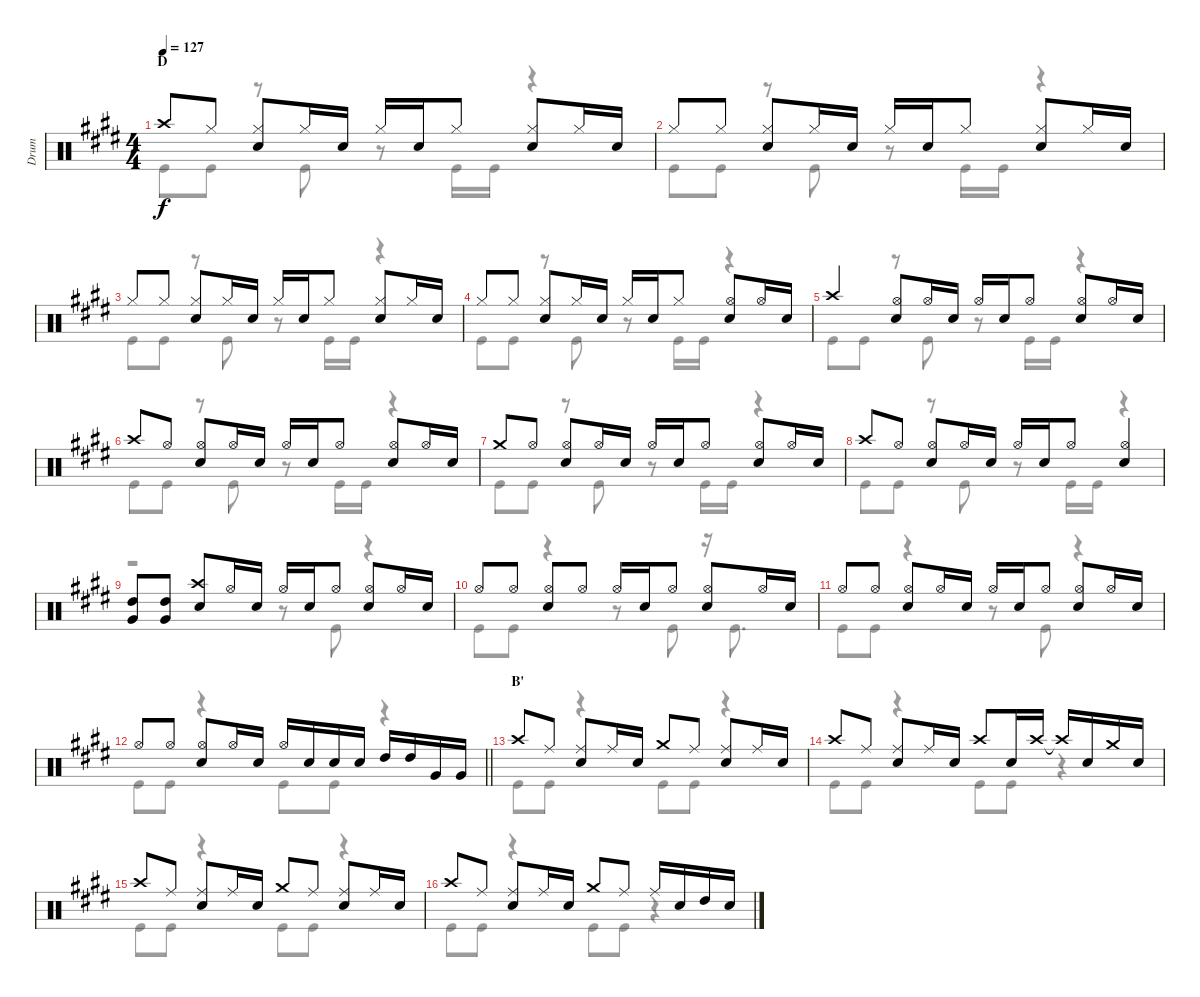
\track ("Drum" "Drum") {instrument percussion}
\staff {score}
\articulation defaults
\voice
\ts (4 4)
\section ("" "D")
\tempo 127
\clef neutral
\ks e "Crash high (hit)".8{dy f} "Hi-Hat (closed)".8
("Hi-Hat (closed)" "Snare (hit) 2").8 "Hi-Hat (closed)".16 "Snare (hit) 2".16 "Hi-Hat (closed)".16 "Snare (hit) 2".16 "Hi-Hat (closed)".8 ("Snare (hit) 2" "Hi-Hat (closed)").8 "Hi-Hat (closed)".16 "Snare (hit) 2".16 |
"Hi-Hat (closed)".8 "Hi-Hat (closed)".8 ("Hi-Hat (closed)" "Snare (hit) 2").8 "Hi-Hat (closed)".16 "Snare (hit) 2".16 "Hi-Hat (closed)".16 "Snare (hit) 2".16 "Hi-Hat (closed)".8 ("Snare (hit) 2" "Hi-Hat (closed)").8 "Hi-Hat (closed)".16 "Snare (hit) 2".16 |
"Hi-Hat (closed)".8 "Hi-Hat (closed)".8 ("Hi-Hat (closed)" "Snare (hit) 2").8 "Hi-Hat (closed)".16 "Snare (hit) 2".16 "Hi-Hat (closed)".16 "Snare (hit) 2".16 "Hi-Hat (closed)".8 ("Snare (hit) 2" "Hi-Hat (closed)").8 "Hi-Hat (closed)".16 "Snare (hit) 2".16 |
"Hi-Hat (closed)".8 "Hi-Hat (closed)".8 ("Hi-Hat (closed)" "Snare (hit) 2").8 "Hi-Hat (closed)".16 "Snare (hit) 2".16 "Hi-Hat (closed)".16 "Snare (hit) 2".16 "Hi-Hat (closed)".8 ("Snare (hit) 2" "Hi-Hat (open)").8 "Hi-Hat (open)".16 "Snare (hit) 2".16 |
"Crash high (hit)".4 ("Hi-Hat (open)" "Snare (hit) 2").8 "Hi-Hat (open)".16 "Snare (hit) 2".16 "Hi-Hat (open)".16 "Snare (hit) 2".16 "Hi-Hat (open)".8 ("Snare (hit) 2" "Hi-Hat (open)").8 "Hi-Hat (open)".16 "Snare (hit) 2".16 |
"Crash high (hit)".8 "Hi-Hat (open)".8 ("Hi-Hat (open)" "Snare (hit) 2").8 "Hi-Hat (open)".16 "Snare (hit) 2".16 "Hi-Hat (open)".16 "Snare (hit) 2".16 "Hi-Hat (open)".8 ("Snare (hit) 2" "Hi-Hat (open)").8 "Hi-Hat (open)".16 "Snare (hit) 2".16 |
"Crash medium (hit)".8 "Hi-Hat (open)".8 ("Hi-Hat (open)" "Snare (hit) 2").8 "Hi-Hat (open)".16 "Snare (hit) 2".16 "Hi-Hat (open)".16 "Snare (hit) 2".16 "Hi-Hat (open)".8 ("Snare (hit) 2" "Hi-Hat (open)").8 "Hi-Hat (open)".16 "Snare (hit) 2".16 |
"Crash high (hit)".8 "Hi-Hat (open)".8 ("Hi-Hat (open)" "Snare (hit) 2").8 "Hi-Hat (open)".16 "Snare (hit) 2".16 "Hi-Hat (open)".16 "Snare (hit) 2".16 "Hi-Hat (open)".8 ("Snare (hit) 2" "Hi-Hat (open)").4 |
("Very Low Tom (hit)" "High Tom (hit)").8 ("High Tom (hit)" "Very Low Tom (hit)").8 ("Snare (hit) 2" "Crash high (hit)").8 "Hi-Hat (open)".16 "Snare (hit) 2".16 "Hi-Hat (open)".16 "Snare (hit) 2".16 "Hi-Hat (open)".8 ("Hi-Hat (open)" "Snare (hit) 2").8 "Hi-Hat (open)".16 "Snare (hit) 2".16 |
"Hi-Hat (open)".8 "Hi-Hat (open)".8 ("Hi-Hat (open)" "Snare (hit) 2").8 "Hi-Hat (open)".8 "Hi-Hat (open)".16 "Snare (hit) 2".16 "Hi-Hat (open)".8 ("Snare (hit) 2" "Hi-Hat (open)").8 "Hi-Hat (open)".16 "Snare (hit) 2".16 |
"Hi-Hat (open)".8 "Hi-Hat (open)".8 ("Snare (hit) 2" "Hi-Hat (open)").8 "Hi-Hat (open)".16 "Snare (hit) 2".16 "Hi-Hat (open)".16 "Snare (hit) 2".16 "Hi-Hat (open)".8 ("Snare (hit) 2" "Hi-Hat (open)").8 "Hi-Hat (open)".16 "Snare (hit) 2".16 |
\barLineRight lightlight "Hi-Hat (open)".8 "Hi-Hat (open)".8
("Hi-Hat (open)" "Snare (hit) 2").8 "Hi-Hat (open)".16 "Snare (hit) 2".16 "Hi-Hat (open)".16 "Snare (hit) 2".16 "Snare (hit) 2".16 "Snare (hit) 2".16 "High Tom (hit)".16 "High Tom (hit)".16 "Very Low Tom (hit)".16 "Very Low Tom (hit)".16 |
\section ("" "B'")
"Crash high (hit)".8 "Ride (middle)".8 ("Snare (hit) 2" "Ride (middle)").8 "Ride (middle)".16 "Snare (hit) 2".16 "Crash medium (hit)".8 "Ride (middle)".8 ("Ride (middle)" "Snare (hit) 2").8 "Ride (middle)".16 "Snare (hit) 2".16 |
"Crash high (hit)".8 "Ride (middle)".8 ("Snare (hit) 2" "Ride (middle)").8 "Ride (middle)".16 "Snare (hit) 2".16 "Crash high (hit)".8 "Snare (hit) 2".16 "Crash high (hit)".16 "Crash high (hit)"{t}.16 "Snare (hit) 2".16 "Crash medium (hit)".16 "Snare (hit) 2".16 |
"Crash high (hit)".8 "Ride (middle)".8 ("Snare (hit) 2" "Ride (middle)").8 "Ride (middle)".16 "Snare (hit) 2".16 "Crash medium (hit)".8 "Ride (middle)".8 ("Ride (middle)" "Snare (hit) 2").8 "Ride (middle)".16 "Snare (hit) 2".16 |
"Crash high (hit)".8 "Ride (middle)".8 ("Snare (hit) 2" "Ride (middle)").8 "Ride (middle)".16 "Snare (hit) 2".16 "Crash medium (hit)".8 "Ride (middle)".8 "Ride (middle)".16 "Snare (hit) 2".16 "High Tom (hit)".16 "Snare (hit) 2".16
\voice
\clef neutral
\ottava regular
\simile none
\ks e "Kick (hit)".8{dy f} "Kick (hit)".8
r.8 "Kick (hit)".8 r.8 "Kick (hit)".16 "Kick (hit)".16 r.4 |
"Kick (hit)".8 "Kick (hit)".8 r.8 "Kick (hit)".8 r.8 "Kick (hit)".16 "Kick (hit)".16 r.4 |
"Kick (hit)".8 "Kick (hit)".8 r.8 "Kick (hit)".8 r.8 "Kick (hit)".16 "Kick (hit)".16 r.4 |
"Kick (hit)".8 "Kick (hit)".8 r.8 "Kick (hit)".8 r.8 "Kick (hit)".16 "Kick (hit)".16 r.4 |
"Kick (hit)".8 "Kick (hit)".8 r.8 "Kick (hit)".8 r.8 "Kick (hit)".16 "Kick (hit)".16 r.4 |
"Kick (hit)".8 "Kick (hit)".8 r.8 "Kick (hit)".8 r.8 "Kick (hit)".16 "Kick (hit)".16 r.4 |
"Kick (hit)".8 "Kick (hit)".8 r.8 "Kick (hit)".8 r.8 "Kick (hit)".16 "Kick (hit)".16 r.4 |
"Kick (hit)".8 "Kick (hit)".8 r.8 "Kick (hit)".8 r.8 "Kick (hit)".16 "Kick (hit)".16 r.4 |
r.2 r.8 "Kick (hit)".8 r.4 |
"Kick (hit)".8 "Kick (hit)".8 r.4 r.8 "Kick (hit)".8 r.16 "Kick (hit)".8{d} |
"Kick (hit)".8 "Kick (hit)".8 r.4 r.8 "Kick (hit)".8 r.4 |
\barLineRight lightlight "Kick (hit)".8 "Kick (hit)".8
r.4 "Kick (hit)".8 "Kick (hit)".8 r.4 |
"Kick (hit)".8 "Kick (hit)".8 r.4 "Kick (hit)".8 "Kick (hit)".8 r.4 |
"Kick (hit)".8 "Kick (hit)".8 r.4 "Kick (hit)".8 "Kick (hit)".8 r.4 |
"Kick (hit)".8 "Kick (hit)".8 r.4 "Kick (hit)".8 "Kick (hit)".8 r.4 |
"Kick (hit)".8 "Kick (hit)".8 r.4 "Kick (hit)".8 "Kick (hit)".8 r.4
